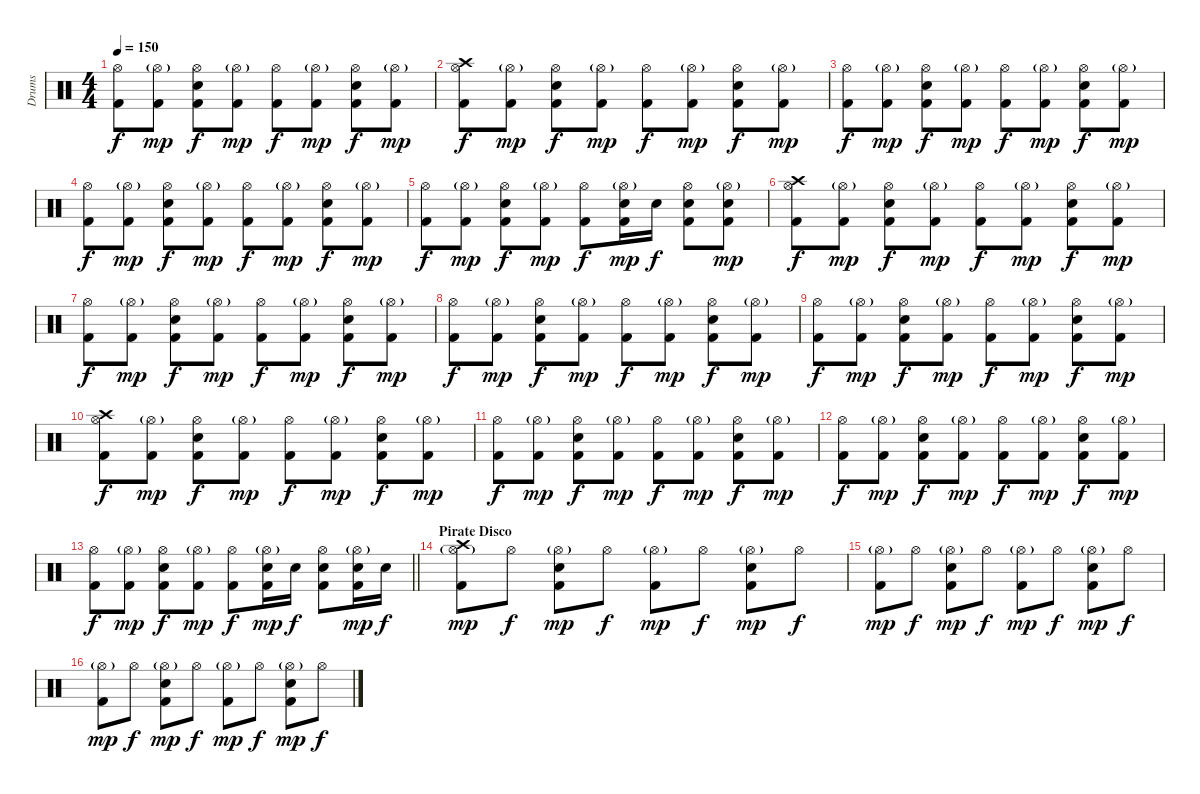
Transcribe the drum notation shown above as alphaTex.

\track ("Drums" "Drums") {instrument percussion}
\staff {score}
\articulation defaults
\ts (4 4)
\tempo 150
\clef neutral
\ks c
("Hi-Hat (open)" "Kick (hit) 2").8{dy f} ("Hi-Hat (open)"{g} "Kick (hit) 2").8{dy mp} ("Hi-Hat (open)" "Snare (hit) 2" "Kick (hit) 2").8{dy f} ("Hi-Hat (open)"{g} "Kick (hit) 2").8{dy mp} ("Hi-Hat (open)" "Kick (hit) 2").8{dy f} ("Hi-Hat (open)"{g} "Kick (hit) 2").8{dy mp} ("Hi-Hat (open)" "Snare (hit) 2" "Kick (hit) 2").8{dy f} ("Hi-Hat (open)"{g} "Kick (hit) 2").8{dy mp} |
("Crash high (hit)" "Hi-Hat (open)" "Kick (hit) 2").8{dy f} ("Hi-Hat (open)"{g} "Kick (hit) 2").8{dy mp} ("Hi-Hat (open)" "Snare (hit) 2" "Kick (hit) 2").8{dy f} ("Hi-Hat (open)"{g} "Kick (hit) 2").8{dy mp} ("Hi-Hat (open)" "Kick (hit) 2").8{dy f} ("Hi-Hat (open)"{g} "Kick (hit) 2").8{dy mp} ("Hi-Hat (open)" "Snare (hit) 2" "Kick (hit) 2").8{dy f} ("Hi-Hat (open)"{g} "Kick (hit) 2").8{dy mp} |
("Hi-Hat (open)" "Kick (hit) 2").8{dy f} ("Hi-Hat (open)"{g} "Kick (hit) 2").8{dy mp} ("Hi-Hat (open)" "Snare (hit) 2" "Kick (hit) 2").8{dy f} ("Hi-Hat (open)"{g} "Kick (hit) 2").8{dy mp} ("Hi-Hat (open)" "Kick (hit) 2").8{dy f} ("Hi-Hat (open)"{g} "Kick (hit) 2").8{dy mp} ("Hi-Hat (open)" "Snare (hit) 2" "Kick (hit) 2").8{dy f} ("Hi-Hat (open)"{g} "Kick (hit) 2").8{dy mp} |
("Hi-Hat (open)" "Kick (hit) 2").8{dy f} ("Hi-Hat (open)"{g} "Kick (hit) 2").8{dy mp} ("Hi-Hat (open)" "Snare (hit) 2" "Kick (hit) 2").8{dy f} ("Hi-Hat (open)"{g} "Kick (hit) 2").8{dy mp} ("Hi-Hat (open)" "Kick (hit) 2").8{dy f} ("Hi-Hat (open)"{g} "Kick (hit) 2").8{dy mp} ("Hi-Hat (open)" "Snare (hit) 2" "Kick (hit) 2").8{dy f} ("Hi-Hat (open)"{g} "Kick (hit) 2").8{dy mp} |
("Hi-Hat (open)" "Kick (hit) 2").8{dy f} ("Hi-Hat (open)"{g} "Kick (hit) 2").8{dy mp} ("Hi-Hat (open)" "Snare (hit) 2" "Kick (hit) 2").8{dy f} ("Hi-Hat (open)"{g} "Kick (hit) 2").8{dy mp} ("Hi-Hat (open)" "Kick (hit) 2").8{dy f} ("Hi-Hat (open)"{g} "Snare (hit) 2" "Kick (hit) 2").16{dy mp} "Snare (hit) 2".16{dy f} ("Hi-Hat (open)" "Snare (hit) 2" "Kick (hit) 2").8 ("Hi-Hat (open)"{g} "Snare (hit) 2" "Kick (hit) 2").8{dy mp} |
("Crash high (hit)" "Hi-Hat (open)" "Kick (hit) 2").8{dy f} ("Hi-Hat (open)"{g} "Kick (hit) 2").8{dy mp} ("Hi-Hat (open)" "Snare (hit) 2" "Kick (hit) 2").8{dy f} ("Hi-Hat (open)"{g} "Kick (hit) 2").8{dy mp} ("Hi-Hat (open)" "Kick (hit) 2").8{dy f} ("Hi-Hat (open)"{g} "Kick (hit) 2").8{dy mp} ("Hi-Hat (open)" "Snare (hit) 2" "Kick (hit) 2").8{dy f} ("Hi-Hat (open)"{g} "Kick (hit) 2").8{dy mp} |
("Hi-Hat (open)" "Kick (hit) 2").8{dy f} ("Hi-Hat (open)"{g} "Kick (hit) 2").8{dy mp} ("Hi-Hat (open)" "Snare (hit) 2" "Kick (hit) 2").8{dy f} ("Hi-Hat (open)"{g} "Kick (hit) 2").8{dy mp} ("Hi-Hat (open)" "Kick (hit) 2").8{dy f} ("Hi-Hat (open)"{g} "Kick (hit) 2").8{dy mp} ("Hi-Hat (open)" "Snare (hit) 2" "Kick (hit) 2").8{dy f} ("Hi-Hat (open)"{g} "Kick (hit) 2").8{dy mp} |
("Hi-Hat (open)" "Kick (hit) 2").8{dy f} ("Hi-Hat (open)"{g} "Kick (hit) 2").8{dy mp} ("Hi-Hat (open)" "Snare (hit) 2" "Kick (hit) 2").8{dy f} ("Hi-Hat (open)"{g} "Kick (hit) 2").8{dy mp} ("Hi-Hat (open)" "Kick (hit) 2").8{dy f} ("Hi-Hat (open)"{g} "Kick (hit) 2").8{dy mp} ("Hi-Hat (open)" "Snare (hit) 2" "Kick (hit) 2").8{dy f} ("Hi-Hat (open)"{g} "Kick (hit) 2").8{dy mp} |
("Hi-Hat (open)" "Kick (hit) 2").8{dy f} ("Hi-Hat (open)"{g} "Kick (hit) 2").8{dy mp} ("Hi-Hat (open)" "Snare (hit) 2" "Kick (hit) 2").8{dy f} ("Hi-Hat (open)"{g} "Kick (hit) 2").8{dy mp} ("Hi-Hat (open)" "Kick (hit) 2").8{dy f} ("Hi-Hat (open)"{g} "Kick (hit) 2").8{dy mp} ("Hi-Hat (open)" "Snare (hit) 2" "Kick (hit) 2").8{dy f} ("Hi-Hat (open)"{g} "Kick (hit) 2").8{dy mp} |
("Crash high (hit)" "Hi-Hat (open)" "Kick (hit) 2").8{dy f} ("Hi-Hat (open)"{g} "Kick (hit) 2").8{dy mp} ("Hi-Hat (open)" "Snare (hit) 2" "Kick (hit) 2").8{dy f} ("Hi-Hat (open)"{g} "Kick (hit) 2").8{dy mp} ("Hi-Hat (open)" "Kick (hit) 2").8{dy f} ("Hi-Hat (open)"{g} "Kick (hit) 2").8{dy mp} ("Hi-Hat (open)" "Snare (hit) 2" "Kick (hit) 2").8{dy f} ("Hi-Hat (open)"{g} "Kick (hit) 2").8{dy mp} |
("Hi-Hat (open)" "Kick (hit) 2").8{dy f} ("Hi-Hat (open)"{g} "Kick (hit) 2").8{dy mp} ("Hi-Hat (open)" "Snare (hit) 2" "Kick (hit) 2").8{dy f} ("Hi-Hat (open)"{g} "Kick (hit) 2").8{dy mp} ("Hi-Hat (open)" "Kick (hit) 2").8{dy f} ("Hi-Hat (open)"{g} "Kick (hit) 2").8{dy mp} ("Hi-Hat (open)" "Snare (hit) 2" "Kick (hit) 2").8{dy f} ("Hi-Hat (open)"{g} "Kick (hit) 2").8{dy mp} |
("Hi-Hat (open)" "Kick (hit) 2").8{dy f} ("Hi-Hat (open)"{g} "Kick (hit) 2").8{dy mp} ("Hi-Hat (open)" "Snare (hit) 2" "Kick (hit) 2").8{dy f} ("Hi-Hat (open)"{g} "Kick (hit) 2").8{dy mp} ("Hi-Hat (open)" "Kick (hit) 2").8{dy f} ("Hi-Hat (open)"{g} "Kick (hit) 2").8{dy mp} ("Hi-Hat (open)" "Snare (hit) 2" "Kick (hit) 2").8{dy f} ("Hi-Hat (open)"{g} "Kick (hit) 2").8{dy mp} |
\barLineRight lightlight
("Hi-Hat (open)" "Kick (hit) 2").8{dy f} ("Hi-Hat (open)"{g} "Kick (hit) 2").8{dy mp} ("Hi-Hat (open)" "Snare (hit) 2" "Kick (hit) 2").8{dy f} ("Hi-Hat (open)"{g} "Kick (hit) 2").8{dy mp} ("Hi-Hat (open)" "Kick (hit) 2").8{dy f} ("Hi-Hat (open)"{g} "Snare (hit) 2" "Kick (hit) 2").16{dy mp} "Snare (hit) 2".16{dy f} ("Hi-Hat (open)" "Snare (hit) 2" "Kick (hit) 2").8 ("Hi-Hat (open)"{g} "Snare (hit) 2" "Kick (hit) 2").16{dy mp} "Snare (hit) 2".16{dy f} |
\section ("" "Pirate Disco")
("Crash high (hit)" "Hi-Hat (open)"{g} "Kick (hit) 2").8{dy mp} "Hi-Hat (open)".8{dy f} ("Hi-Hat (open)"{g} "Snare (hit) 2" "Kick (hit) 2").8{dy mp} "Hi-Hat (open)".8{dy f} ("Hi-Hat (open)"{g} "Kick (hit) 2").8{dy mp} "Hi-Hat (open)".8{dy f} ("Hi-Hat (open)"{g} "Snare (hit) 2" "Kick (hit) 2").8{dy mp} "Hi-Hat (open)".8{dy f} |
("Hi-Hat (open)"{g} "Kick (hit) 2").8{dy mp} "Hi-Hat (open)".8{dy f} ("Hi-Hat (open)"{g} "Snare (hit) 2" "Kick (hit) 2").8{dy mp} "Hi-Hat (open)".8{dy f} ("Hi-Hat (open)"{g} "Kick (hit) 2").8{dy mp} "Hi-Hat (open)".8{dy f} ("Hi-Hat (open)"{g} "Snare (hit) 2" "Kick (hit) 2").8{dy mp} "Hi-Hat (open)".8{dy f} |
("Hi-Hat (open)"{g} "Kick (hit) 2").8{dy mp} "Hi-Hat (open)".8{dy f} ("Hi-Hat (open)"{g} "Snare (hit) 2" "Kick (hit) 2").8{dy mp} "Hi-Hat (open)".8{dy f} ("Hi-Hat (open)"{g} "Kick (hit) 2").8{dy mp} "Hi-Hat (open)".8{dy f} ("Hi-Hat (open)"{g} "Snare (hit) 2" "Kick (hit) 2").8{dy mp} "Hi-Hat (open)".8{dy f}
